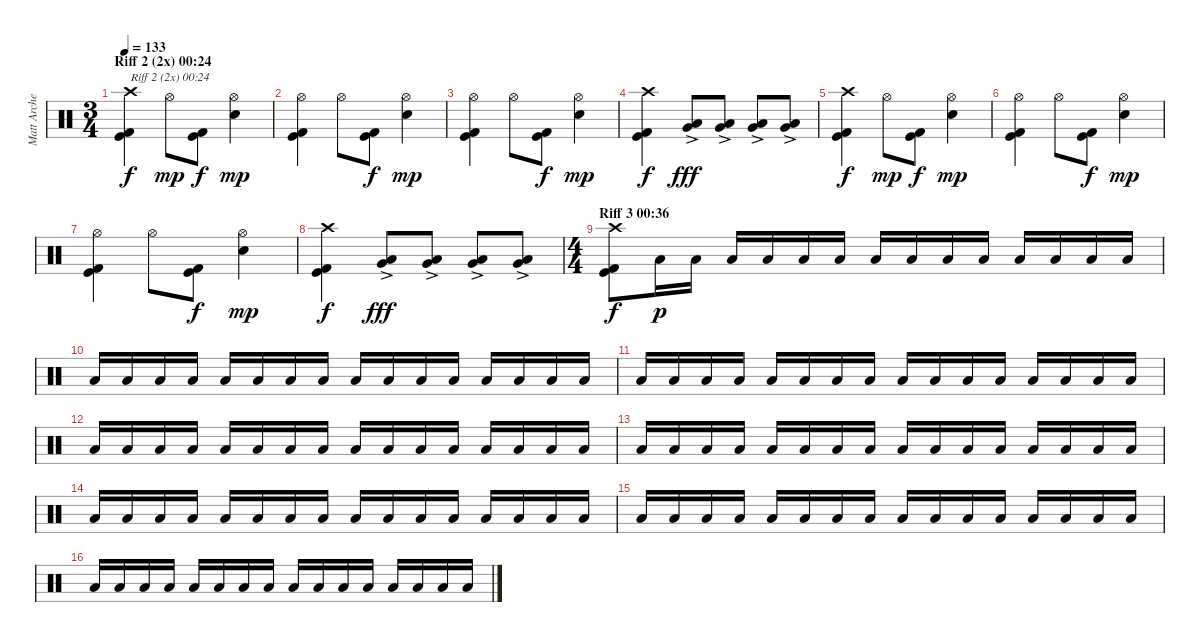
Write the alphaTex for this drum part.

\track ("Matt Archer" "Matt Arche") {instrument percussion}
\staff {score}
\articulation defaults
\ts (3 4)
\section ("" "Riff 2 (2x) 00:24")
\tempo 133
\clef neutral
\ks c
("Kick (hit)" "Kick (hit) 2" "Crash high (hit)").4{txt "Riff 2 (2x) 00:24" dy f} "Hi-Hat (open)".8{dy mp} ("Kick (hit)" "Kick (hit) 2").8{dy f} ("Electric Snare (hit)" "Hi-Hat (open)").4{dy mp} |
("Kick (hit)" "Kick (hit) 2" "Hi-Hat (open)").4 "Hi-Hat (open)".8 ("Kick (hit)" "Kick (hit) 2").8{dy f} ("Electric Snare (hit)" "Hi-Hat (open)").4{dy mp} |
("Kick (hit)" "Kick (hit) 2" "Hi-Hat (open)").4 "Hi-Hat (open)".8 ("Kick (hit)" "Kick (hit) 2").8{dy f} ("Electric Snare (hit)" "Hi-Hat (open)").4{dy mp} |
("Kick (hit)" "Kick (hit) 2" "Crash high (hit)").4{dy f} ("Very Low Tom (hit)"{ac} "Low Floor Tom (hit)"{ac}).8{dy fff} ("Very Low Tom (hit)"{ac} "Low Floor Tom (hit)"{ac}).8 ("Very Low Tom (hit)"{ac} "Low Floor Tom (hit)"{ac}).8 ("Very Low Tom (hit)"{ac} "Low Floor Tom (hit)"{ac}).8 |
("Kick (hit)" "Kick (hit) 2" "Crash high (hit)").4{dy f} "Hi-Hat (open)".8{dy mp} ("Kick (hit)" "Kick (hit) 2").8{dy f} ("Electric Snare (hit)" "Hi-Hat (open)").4{dy mp} |
("Kick (hit)" "Kick (hit) 2" "Hi-Hat (open)").4 "Hi-Hat (open)".8 ("Kick (hit)" "Kick (hit) 2").8{dy f} ("Electric Snare (hit)" "Hi-Hat (open)").4{dy mp} |
("Kick (hit)" "Kick (hit) 2" "Hi-Hat (open)").4 "Hi-Hat (open)".8 ("Kick (hit)" "Kick (hit) 2").8{dy f} ("Electric Snare (hit)" "Hi-Hat (open)").4{dy mp} |
("Kick (hit)" "Kick (hit) 2" "Crash high (hit)").4{dy f} ("Very Low Tom (hit)"{ac} "Low Floor Tom (hit)"{ac}).8{dy fff} ("Very Low Tom (hit)"{ac} "Low Floor Tom (hit)"{ac}).8 ("Very Low Tom (hit)"{ac} "Low Floor Tom (hit)"{ac}).8 ("Very Low Tom (hit)"{ac} "Low Floor Tom (hit)"{ac}).8 |
\ts (4 4)
\section ("" "Riff 3 00:36")
("Kick (hit)" "Kick (hit) 2" "Crash high (hit)").8{dy f} "Low Tom (hit)".16{dy p} "Low Tom (hit)".16 "Low Tom (hit)".16 "Low Tom (hit)".16 "Low Tom (hit)".16 "Low Tom (hit)".16 "Low Tom (hit)".16 "Low Tom (hit)".16 "Low Tom (hit)".16 "Low Tom (hit)".16 "Low Tom (hit)".16 "Low Tom (hit)".16 "Low Tom (hit)".16 "Low Tom (hit)".16 |
"Low Tom (hit)".16 "Low Tom (hit)".16 "Low Tom (hit)".16 "Low Tom (hit)".16 "Low Tom (hit)".16 "Low Tom (hit)".16 "Low Tom (hit)".16 "Low Tom (hit)".16 "Low Tom (hit)".16 "Low Tom (hit)".16 "Low Tom (hit)".16 "Low Tom (hit)".16 "Low Tom (hit)".16 "Low Tom (hit)".16 "Low Tom (hit)".16 "Low Tom (hit)".16 |
"Low Tom (hit)".16 "Low Tom (hit)".16 "Low Tom (hit)".16 "Low Tom (hit)".16 "Low Tom (hit)".16 "Low Tom (hit)".16 "Low Tom (hit)".16 "Low Tom (hit)".16 "Low Tom (hit)".16 "Low Tom (hit)".16 "Low Tom (hit)".16 "Low Tom (hit)".16 "Low Tom (hit)".16 "Low Tom (hit)".16 "Low Tom (hit)".16 "Low Tom (hit)".16 |
"Low Tom (hit)".16 "Low Tom (hit)".16 "Low Tom (hit)".16 "Low Tom (hit)".16 "Low Tom (hit)".16 "Low Tom (hit)".16 "Low Tom (hit)".16 "Low Tom (hit)".16 "Low Tom (hit)".16 "Low Tom (hit)".16 "Low Tom (hit)".16 "Low Tom (hit)".16 "Low Tom (hit)".16 "Low Tom (hit)".16 "Low Tom (hit)".16 "Low Tom (hit)".16 |
"Low Tom (hit)".16 "Low Tom (hit)".16 "Low Tom (hit)".16 "Low Tom (hit)".16 "Low Tom (hit)".16 "Low Tom (hit)".16 "Low Tom (hit)".16 "Low Tom (hit)".16 "Low Tom (hit)".16 "Low Tom (hit)".16 "Low Tom (hit)".16 "Low Tom (hit)".16 "Low Tom (hit)".16 "Low Tom (hit)".16 "Low Tom (hit)".16 "Low Tom (hit)".16 |
"Low Tom (hit)".16 "Low Tom (hit)".16 "Low Tom (hit)".16 "Low Tom (hit)".16 "Low Tom (hit)".16 "Low Tom (hit)".16 "Low Tom (hit)".16 "Low Tom (hit)".16 "Low Tom (hit)".16 "Low Tom (hit)".16 "Low Tom (hit)".16 "Low Tom (hit)".16 "Low Tom (hit)".16 "Low Tom (hit)".16 "Low Tom (hit)".16 "Low Tom (hit)".16 |
"Low Tom (hit)".16 "Low Tom (hit)".16 "Low Tom (hit)".16 "Low Tom (hit)".16 "Low Tom (hit)".16 "Low Tom (hit)".16 "Low Tom (hit)".16 "Low Tom (hit)".16 "Low Tom (hit)".16 "Low Tom (hit)".16 "Low Tom (hit)".16 "Low Tom (hit)".16 "Low Tom (hit)".16 "Low Tom (hit)".16 "Low Tom (hit)".16 "Low Tom (hit)".16 |
"Low Tom (hit)".16 "Low Tom (hit)".16 "Low Tom (hit)".16 "Low Tom (hit)".16 "Low Tom (hit)".16 "Low Tom (hit)".16 "Low Tom (hit)".16 "Low Tom (hit)".16 "Low Tom (hit)".16 "Low Tom (hit)".16 "Low Tom (hit)".16 "Low Tom (hit)".16 "Low Tom (hit)".16 "Low Tom (hit)".16 "Low Tom (hit)".16 "Low Tom (hit)".16
